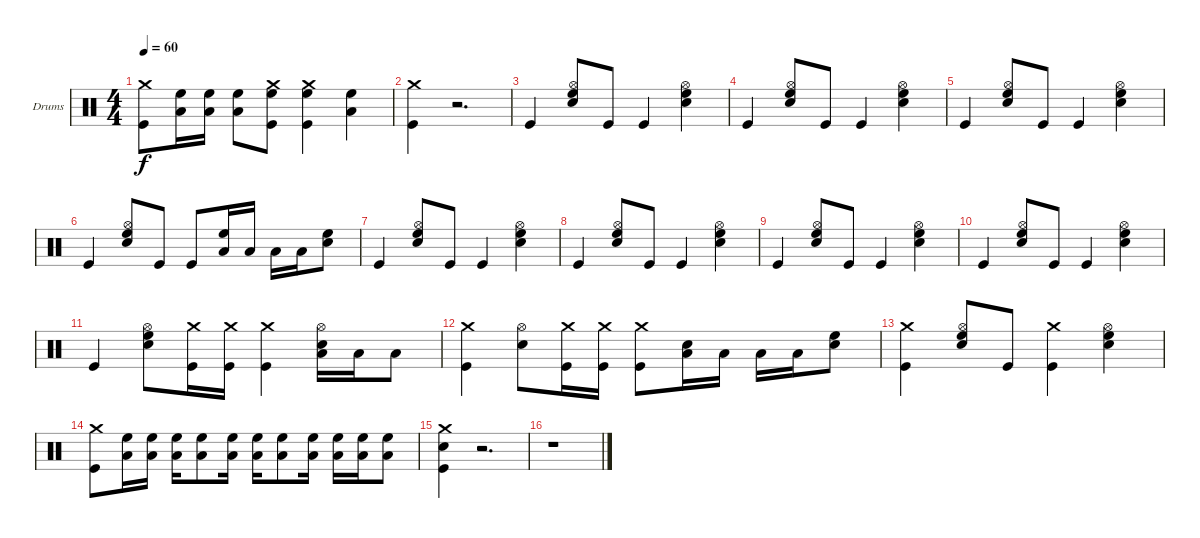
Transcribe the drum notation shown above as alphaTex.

\bracketExtendMode groupsimilarinstruments
\firstSystemTrackNameOrientation horizontal
\otherSystemsTrackNameOrientation horizontal
\track ("Drumkit" "Drums") {instrument percussion}
\staff {score}
\articulation defaults
\ts (4 4)
\tempo 60
\clef neutral
\ks c
("Crash medium (hit)" "Kick (hit)").8{dy f} ("High Floor Tom (hit)" "Low Tom (hit)").16 ("High Floor Tom (hit)" "Low Tom (hit)").16 ("High Floor Tom (hit)" "Low Tom (hit)").8 ("Crash medium (hit)" "High Floor Tom (hit)" "Kick (hit)").8 ("Crash medium (hit)" "High Floor Tom (hit)" "Kick (hit)").4 ("High Floor Tom (hit)" "Low Tom (hit)").4 |
("Crash medium (hit)" "Kick (hit)").4 r.2{d} |
"Kick (hit)".4 ("Hi-Hat (open)" "High Floor Tom (hit)" "Snare (hit) 2").8 "Kick (hit)".8 "Kick (hit)".4 ("Hi-Hat (open)" "High Floor Tom (hit)" "Snare (hit) 2").4 |
"Kick (hit)".4 ("Hi-Hat (open)" "High Floor Tom (hit)" "Snare (hit) 2").8 "Kick (hit)".8 "Kick (hit)".4 ("Hi-Hat (open)" "High Floor Tom (hit)" "Snare (hit) 2").4 |
"Kick (hit)".4 ("Hi-Hat (open)" "High Floor Tom (hit)" "Snare (hit) 2").8 "Kick (hit)".8 "Kick (hit)".4 ("Hi-Hat (open)" "High Floor Tom (hit)" "Snare (hit) 2").4 |
"Kick (hit)".4 ("Hi-Hat (open)" "High Floor Tom (hit)" "Snare (hit) 2").8 "Kick (hit)".8 "Kick (hit)".8 ("High Floor Tom (hit)" "Low Tom (hit)").16 "Low Tom (hit)".16 "Low Tom (hit)".16 "Low Tom (hit)".16 ("High Floor Tom (hit)" "Snare (hit) 2").8 |
"Kick (hit)".4 ("Hi-Hat (open)" "High Floor Tom (hit)" "Snare (hit) 2").8 "Kick (hit)".8 "Kick (hit)".4 ("Hi-Hat (open)" "High Floor Tom (hit)" "Snare (hit) 2").4 |
"Kick (hit)".4 ("Hi-Hat (open)" "High Floor Tom (hit)" "Snare (hit) 2").8 "Kick (hit)".8 "Kick (hit)".4 ("Hi-Hat (open)" "High Floor Tom (hit)" "Snare (hit) 2").4 |
"Kick (hit)".4 ("Hi-Hat (open)" "High Floor Tom (hit)" "Snare (hit) 2").8 "Kick (hit)".8 "Kick (hit)".4 ("Hi-Hat (open)" "High Floor Tom (hit)" "Snare (hit) 2").4 |
"Kick (hit)".4 ("Hi-Hat (open)" "High Floor Tom (hit)" "Snare (hit) 2").8 "Kick (hit)".8 "Kick (hit)".4 ("Hi-Hat (open)" "High Floor Tom (hit)" "Snare (hit) 2").4 |
"Kick (hit)".4 ("Hi-Hat (open)" "Snare (hit) 2" "High Floor Tom (hit)").8 ("Crash medium (hit)" "Kick (hit)").16 ("Crash medium (hit)" "Kick (hit)").16 ("Crash medium (hit)" "Kick (hit)").4 ("Hi-Hat (open)" "Snare (hit) 2" "Low Tom (hit)").16 "Low Tom (hit)".16 "Low Tom (hit)".8 |
("Crash medium (hit)" "Kick (hit)").4 ("Hi-Hat (open)" "Snare (hit) 2").8 ("Crash medium (hit)" "Kick (hit)").16 ("Crash medium (hit)" "Kick (hit)").16 ("Crash medium (hit)" "Kick (hit)").8 ("Snare (hit) 2" "Low Tom (hit)").16 "Low Tom (hit)".16 "Low Tom (hit)".16 "Low Tom (hit)".16 ("High Floor Tom (hit)" "Snare (hit) 2").8 |
("Crash medium (hit)" "Kick (hit)").4 ("Hi-Hat (open)" "High Floor Tom (hit)" "Snare (hit) 2").8 "Kick (hit)".8 ("Crash medium (hit)" "Kick (hit)").4 ("Hi-Hat (open)" "High Floor Tom (hit)" "Snare (hit) 2").4 |
("Crash medium (hit)" "Kick (hit)").8 ("High Floor Tom (hit)" "Low Tom (hit)").16 ("High Floor Tom (hit)" "Low Tom (hit)").16 ("High Floor Tom (hit)" "Low Tom (hit)").16 ("High Floor Tom (hit)" "Low Tom (hit)").8 ("High Floor Tom (hit)" "Low Tom (hit)").16 ("High Floor Tom (hit)" "Low Tom (hit)").16 ("High Floor Tom (hit)" "Low Tom (hit)").8 ("High Floor Tom (hit)" "Low Tom (hit)").16 ("High Floor Tom (hit)" "Low Tom (hit)").16 ("High Floor Tom (hit)" "Low Tom (hit)").16 ("High Floor Tom (hit)" "Low Tom (hit)").8 |
("Crash medium (hit)" "Snare (hit) 2" "Kick (hit)").4 r.2{d} |
r.1
